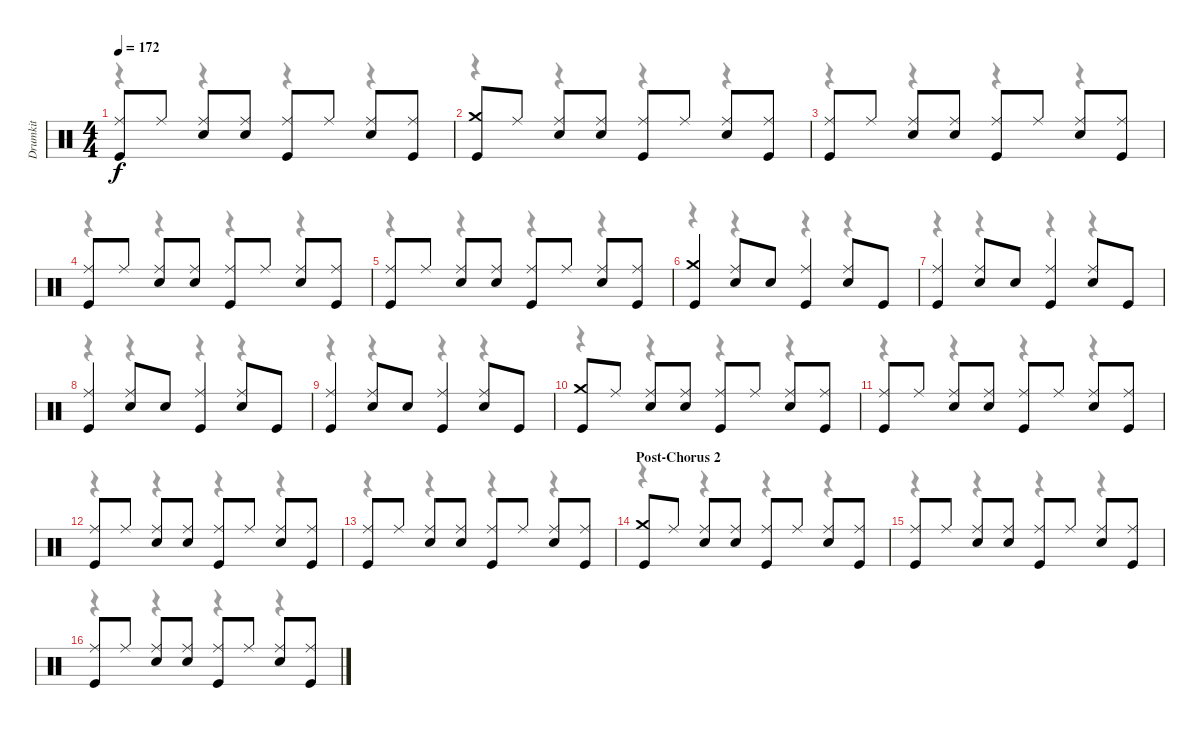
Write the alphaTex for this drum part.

\track ("Drumkit" "Drumkit") {instrument percussion}
\staff {score}
\articulation defaults
\voice
\ts (4 4)
\tempo 172
\clef neutral
\ks c
("Ride (middle)" "Kick (hit)").8{dy f} "Ride (middle)".8 ("Ride (middle)" "Snare (hit) 2").8 ("Ride (middle)" "Snare (hit) 2").8 ("Ride (middle)" "Kick (hit)").8 "Ride (middle)".8 ("Ride (middle)" "Snare (hit) 2").8 ("Ride (middle)" "Kick (hit)").8 |
("Crash medium (hit)" "Kick (hit)").8 "Ride (middle)".8 ("Ride (middle)" "Snare (hit) 2").8 ("Ride (middle)" "Snare (hit) 2").8 ("Ride (middle)" "Kick (hit)").8 "Ride (middle)".8 ("Ride (middle)" "Snare (hit) 2").8 ("Ride (middle)" "Kick (hit)").8 |
("Ride (middle)" "Kick (hit)").8 "Ride (middle)".8 ("Ride (middle)" "Snare (hit) 2").8 ("Ride (middle)" "Snare (hit) 2").8 ("Ride (middle)" "Kick (hit)").8 "Ride (middle)".8 ("Ride (middle)" "Snare (hit) 2").8 ("Ride (middle)" "Kick (hit)").8 |
("Ride (middle)" "Kick (hit)").8 "Ride (middle)".8 ("Ride (middle)" "Snare (hit) 2").8 ("Ride (middle)" "Snare (hit) 2").8 ("Ride (middle)" "Kick (hit)").8 "Ride (middle)".8 ("Ride (middle)" "Snare (hit) 2").8 ("Ride (middle)" "Kick (hit)").8 |
("Ride (middle)" "Kick (hit)").8 "Ride (middle)".8 ("Ride (middle)" "Snare (hit) 2").8 ("Ride (middle)" "Snare (hit) 2").8 ("Ride (middle)" "Kick (hit)").8 "Ride (middle)".8 ("Ride (middle)" "Snare (hit) 2").8 ("Ride (middle)" "Kick (hit)").8 |
("Crash medium (hit)" "Kick (hit)").4 ("Ride (middle)" "Snare (hit) 2").8 "Snare (hit) 2".8 ("Ride (middle)" "Kick (hit)").4 ("Ride (middle)" "Snare (hit) 2").8 "Kick (hit)".8 |
("Ride (middle)" "Kick (hit)").4 ("Ride (middle)" "Snare (hit) 2").8 "Snare (hit) 2".8 ("Ride (middle)" "Kick (hit)").4 ("Ride (middle)" "Snare (hit) 2").8 "Kick (hit)".8 |
("Ride (middle)" "Kick (hit)").4 ("Ride (middle)" "Snare (hit) 2").8 "Snare (hit) 2".8 ("Ride (middle)" "Kick (hit)").4 ("Ride (middle)" "Snare (hit) 2").8 "Kick (hit)".8 |
("Ride (middle)" "Kick (hit)").4 ("Ride (middle)" "Snare (hit) 2").8 "Snare (hit) 2".8 ("Ride (middle)" "Kick (hit)").4 ("Ride (middle)" "Snare (hit) 2").8 "Kick (hit)".8 |
("Crash medium (hit)" "Kick (hit)").8 "Ride (middle)".8 ("Ride (middle)" "Snare (hit) 2").8 ("Ride (middle)" "Snare (hit) 2").8 ("Ride (middle)" "Kick (hit)").8 "Ride (middle)".8 ("Ride (middle)" "Snare (hit) 2").8 ("Ride (middle)" "Kick (hit)").8 |
("Ride (middle)" "Kick (hit)").8 "Ride (middle)".8 ("Ride (middle)" "Snare (hit) 2").8 ("Ride (middle)" "Snare (hit) 2").8 ("Ride (middle)" "Kick (hit)").8 "Ride (middle)".8 ("Ride (middle)" "Snare (hit) 2").8 ("Ride (middle)" "Kick (hit)").8 |
("Ride (middle)" "Kick (hit)").8 "Ride (middle)".8 ("Ride (middle)" "Snare (hit) 2").8 ("Ride (middle)" "Snare (hit) 2").8 ("Ride (middle)" "Kick (hit)").8 "Ride (middle)".8 ("Ride (middle)" "Snare (hit) 2").8 ("Ride (middle)" "Kick (hit)").8 |
("Ride (middle)" "Kick (hit)").8 "Ride (middle)".8 ("Ride (middle)" "Snare (hit) 2").8 ("Ride (middle)" "Snare (hit) 2").8 ("Ride (middle)" "Kick (hit)").8 "Ride (middle)".8 ("Ride (middle)" "Snare (hit) 2").8 ("Ride (middle)" "Kick (hit)").8 |
\section ("" "Post-Chorus 2")
("Crash medium (hit)" "Kick (hit)").8 "Ride (middle)".8 ("Ride (middle)" "Snare (hit) 2").8 ("Ride (middle)" "Snare (hit) 2").8 ("Ride (middle)" "Kick (hit)").8 "Ride (middle)".8 ("Ride (middle)" "Snare (hit) 2").8 ("Ride (middle)" "Kick (hit)").8 |
("Ride (middle)" "Kick (hit)").8 "Ride (middle)".8 ("Ride (middle)" "Snare (hit) 2").8 ("Ride (middle)" "Snare (hit) 2").8 ("Ride (middle)" "Kick (hit)").8 "Ride (middle)".8 ("Ride (middle)" "Snare (hit) 2").8 ("Ride (middle)" "Kick (hit)").8 |
("Ride (middle)" "Kick (hit)").8 "Ride (middle)".8 ("Ride (middle)" "Snare (hit) 2").8 ("Ride (middle)" "Snare (hit) 2").8 ("Ride (middle)" "Kick (hit)").8 "Ride (middle)".8 ("Ride (middle)" "Snare (hit) 2").8 ("Ride (middle)" "Kick (hit)").8
\voice
\clef neutral
\ottava regular
\simile none
\ks c
r.4{dy f} r.4 r.4 r.4 |
r.4 r.4 r.4 r.4 |
r.4 r.4 r.4 r.4 |
r.4 r.4 r.4 r.4 |
r.4 r.4 r.4 r.4 |
r.4 r.4 r.4 r.4 |
r.4 r.4 r.4 r.4 |
r.4 r.4 r.4 r.4 |
r.4 r.4 r.4 r.4 |
r.4 r.4 r.4 r.4 |
r.4 r.4 r.4 r.4 |
r.4 r.4 r.4 r.4 |
r.4 r.4 r.4 r.4 |
r.4 r.4 r.4 r.4 |
r.4 r.4 r.4 r.4 |
r.4 r.4 r.4 r.4
